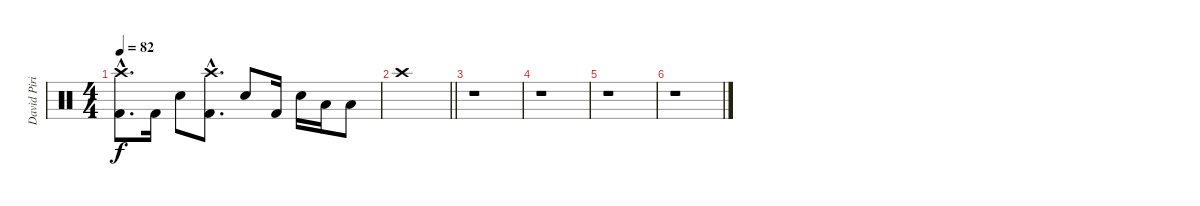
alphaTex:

\track ("David Piribauer (Drums)" "David Piri") {instrument percussion}
\staff {score}
\articulation defaults
\ts (4 4)
\tempo 82
\clef neutral
\ks c
("Crash high (hit)"{hac} "Kick (hit) 2"{hac}).8{d dy f} "Kick (hit) 2".16 "Electric Snare (hit)".8 ("Crash high (hit)"{hac} "Kick (hit) 2"{hac}).8{d} "Electric Snare (hit)".8 "Kick (hit) 2".16 "Electric Snare (hit)".16 "Low Tom (hit)".16 "Low Tom (hit)".8 |
\barLineRight lightlight "Crash high (hit)".1
|
r.1 |
r.1 |
r.1 |
r.1
